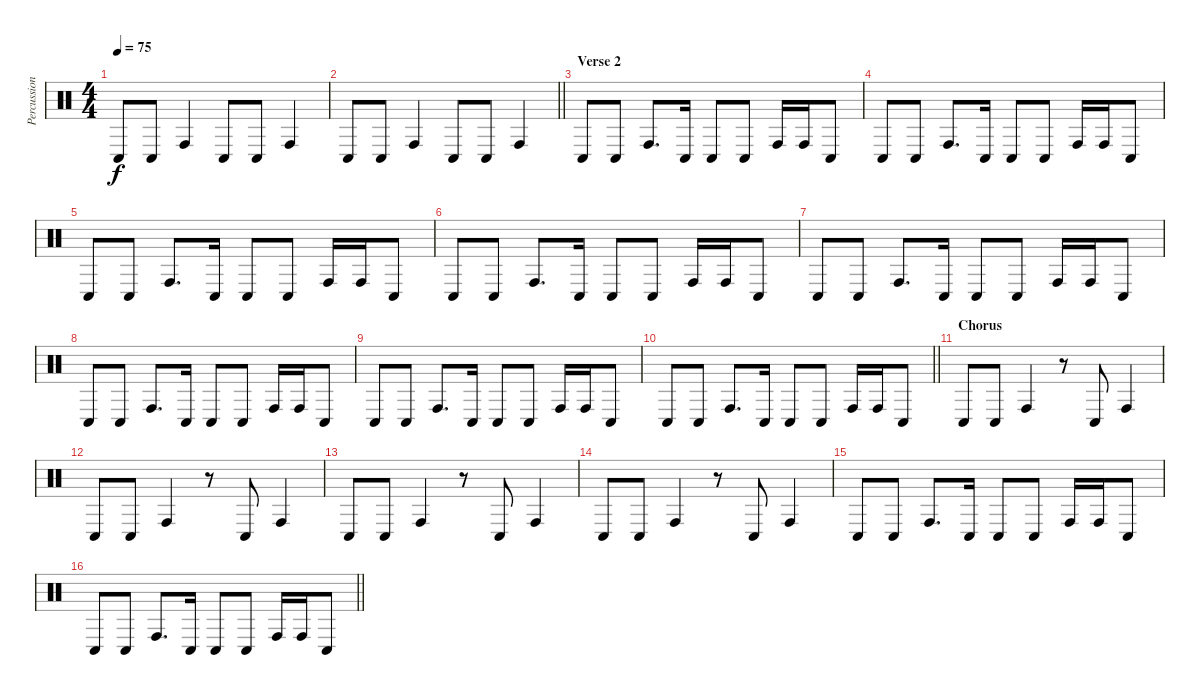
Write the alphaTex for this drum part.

\track ("Percussion (bongo's) +" "Percussion") {instrument percussion}
\staff {score}
\articulation defaults
\ts (4 4)
\tempo 75
\clef neutral
\ks c "Conga low (hit)".8{dy f} "Conga low (hit)".8 "Conga high (hit)".4 "Conga low (hit)".8 "Conga low (hit)".8 "Conga high (hit)".4
|
\barLineRight lightlight "Conga low (hit)".8 "Conga low (hit)".8 "Conga high (hit)".4 "Conga low (hit)".8 "Conga low (hit)".8 "Conga high (hit)".4
|
\section ("" "Verse 2")
"Conga low (hit)".8 "Conga low (hit)".8 "Conga high (hit)".8{d} "Conga low (hit)".16 "Conga low (hit)".8 "Conga low (hit)".8 "Conga high (hit)".16 "Conga high (hit)".16 "Conga low (hit)".8 |
"Conga low (hit)".8 "Conga low (hit)".8 "Conga high (hit)".8{d} "Conga low (hit)".16 "Conga low (hit)".8 "Conga low (hit)".8 "Conga high (hit)".16 "Conga high (hit)".16 "Conga low (hit)".8 |
"Conga low (hit)".8 "Conga low (hit)".8 "Conga high (hit)".8{d} "Conga low (hit)".16 "Conga low (hit)".8 "Conga low (hit)".8 "Conga high (hit)".16 "Conga high (hit)".16 "Conga low (hit)".8 |
"Conga low (hit)".8 "Conga low (hit)".8 "Conga high (hit)".8{d} "Conga low (hit)".16 "Conga low (hit)".8 "Conga low (hit)".8 "Conga high (hit)".16 "Conga high (hit)".16 "Conga low (hit)".8 |
"Conga low (hit)".8 "Conga low (hit)".8 "Conga high (hit)".8{d} "Conga low (hit)".16 "Conga low (hit)".8 "Conga low (hit)".8 "Conga high (hit)".16 "Conga high (hit)".16 "Conga low (hit)".8 |
"Conga low (hit)".8 "Conga low (hit)".8 "Conga high (hit)".8{d} "Conga low (hit)".16 "Conga low (hit)".8 "Conga low (hit)".8 "Conga high (hit)".16 "Conga high (hit)".16 "Conga low (hit)".8 |
"Conga low (hit)".8 "Conga low (hit)".8 "Conga high (hit)".8{d} "Conga low (hit)".16 "Conga low (hit)".8 "Conga low (hit)".8 "Conga high (hit)".16 "Conga high (hit)".16 "Conga low (hit)".8 |
\barLineRight lightlight "Conga low (hit)".8 "Conga low (hit)".8 "Conga high (hit)".8{d} "Conga low (hit)".16 "Conga low (hit)".8 "Conga low (hit)".8 "Conga high (hit)".16 "Conga high (hit)".16 "Conga low (hit)".8
|
\section ("" "Chorus")
"Conga low (hit)".8 "Conga low (hit)".8 "Conga high (hit)".4 r.8 "Conga low (hit)".8 "Conga high (hit)".4 |
"Conga low (hit)".8 "Conga low (hit)".8 "Conga high (hit)".4 r.8 "Conga low (hit)".8 "Conga high (hit)".4 |
"Conga low (hit)".8 "Conga low (hit)".8 "Conga high (hit)".4 r.8 "Conga low (hit)".8 "Conga high (hit)".4 |
"Conga low (hit)".8 "Conga low (hit)".8 "Conga high (hit)".4 r.8 "Conga low (hit)".8 "Conga high (hit)".4 |
"Conga low (hit)".8 "Conga low (hit)".8 "Conga high (hit)".8{d} "Conga low (hit)".16 "Conga low (hit)".8 "Conga low (hit)".8 "Conga high (hit)".16 "Conga high (hit)".16 "Conga low (hit)".8 |
\barLineRight lightlight "Conga low (hit)".8 "Conga low (hit)".8 "Conga high (hit)".8{d} "Conga low (hit)".16 "Conga low (hit)".8 "Conga low (hit)".8 "Conga high (hit)".16 "Conga high (hit)".16 "Conga low (hit)".8
